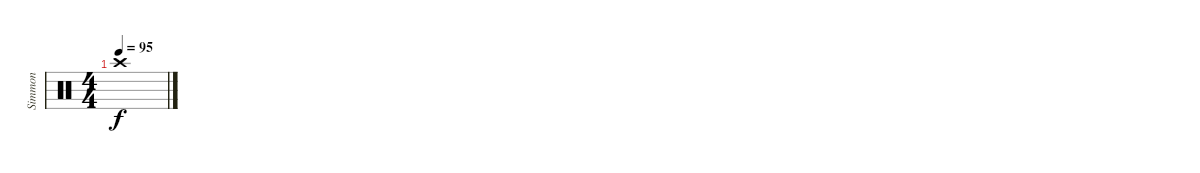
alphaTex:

\track ("Simmon" "Simmon") {instrument percussion}
\staff {score}
\articulation defaults
\ts (4 4)
\tempo 95
\clef neutral
\ks c "Crash high (hit)".1{dy f}
